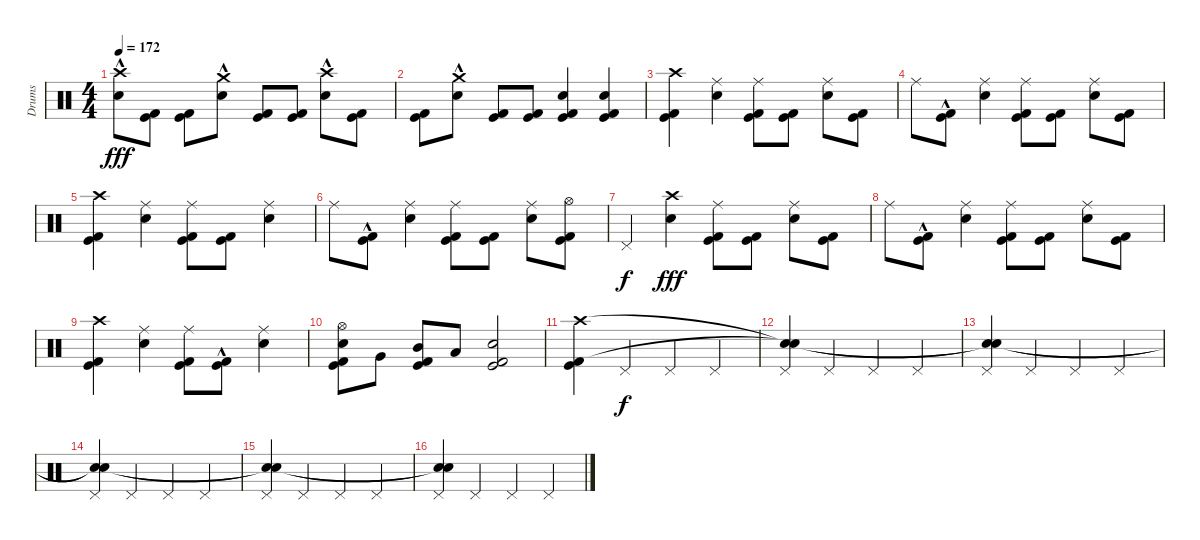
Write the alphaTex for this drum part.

\track ("Drums" "Drums") {instrument percussion}
\staff {score}
\articulation defaults
\ts (4 4)
\tempo 172
\clef neutral
\ks c
("Electric Snare (hit)"{hac} "Crash high (hit)"{hac}).8{dy fff} ("Kick (hit)" "Kick (hit) 2").8 ("Kick (hit)" "Kick (hit) 2").8 ("Electric Snare (hit)"{hac} "Crash medium (hit)"{hac}).8 ("Kick (hit)" "Kick (hit) 2").8 ("Kick (hit)" "Kick (hit) 2").8 ("Electric Snare (hit)"{hac} "Crash high (hit)"{hac}).8 ("Kick (hit)" "Kick (hit) 2").8 |
("Kick (hit)" "Kick (hit) 2").8 ("Electric Snare (hit)"{hac} "Crash medium (hit)"{hac}).8 ("Kick (hit)" "Kick (hit) 2").8 ("Kick (hit)" "Kick (hit) 2").8 ("Kick (hit)" "Kick (hit) 2" "Electric Snare (hit)").4 ("Kick (hit)" "Kick (hit) 2" "Electric Snare (hit)").4 |
("Kick (hit)" "Kick (hit) 2" "Crash high (hit)").4 ("Electric Snare (hit)" "Ride (middle)").4 ("Kick (hit)" "Kick (hit) 2" "Ride (middle)").8 ("Kick (hit)" "Kick (hit) 2").8 ("Electric Snare (hit)" "Ride (middle)").8 ("Kick (hit)" "Kick (hit) 2").8 |
"Ride (middle)".8 ("Kick (hit)"{hac} "Kick (hit) 2"{hac}).8 ("Electric Snare (hit)" "Ride (middle)").4 ("Kick (hit)" "Kick (hit) 2" "Ride (middle)").8 ("Kick (hit)" "Kick (hit) 2").8 ("Electric Snare (hit)" "Ride (middle)").8 ("Kick (hit)" "Kick (hit) 2").8 |
("Kick (hit)" "Kick (hit) 2" "Crash high (hit)").4 ("Electric Snare (hit)" "Ride (middle)").4 ("Kick (hit)" "Kick (hit) 2" "Ride (middle)").8 ("Kick (hit)" "Kick (hit) 2").8 ("Electric Snare (hit)" "Ride (middle)").4 |
"Ride (middle)".8 ("Kick (hit)"{hac} "Kick (hit) 2"{hac}).8 ("Electric Snare (hit)" "Ride (middle)").4 ("Kick (hit)" "Kick (hit) 2" "Ride (middle)").8 ("Kick (hit)" "Kick (hit) 2").8 ("Electric Snare (hit)" "Ride (middle)").8 ("Kick (hit)" "Kick (hit) 2" "Hi-Hat (open)").8 |
"Pedal Hi-Hat (hit)".4{dy f} ("Electric Snare (hit)" "Crash high (hit)").4{dy fff} ("Kick (hit)" "Kick (hit) 2" "Ride (middle)").8 ("Kick (hit)" "Kick (hit) 2").8 ("Electric Snare (hit)" "Ride (middle)").8 ("Kick (hit)" "Kick (hit) 2").8 |
"Ride (middle)".8 ("Kick (hit)"{hac} "Kick (hit) 2"{hac}).8 ("Electric Snare (hit)" "Ride (middle)").4 ("Kick (hit)" "Kick (hit) 2" "Ride (middle)").8 ("Kick (hit)" "Kick (hit) 2").8 ("Electric Snare (hit)" "Ride (middle)").8 ("Kick (hit)" "Kick (hit) 2").8 |
("Kick (hit)" "Kick (hit) 2" "Crash high (hit)").4 ("Electric Snare (hit)" "Ride (middle)").4 ("Kick (hit)" "Kick (hit) 2" "Ride (middle)").8 ("Kick (hit)"{hac} "Kick (hit) 2"{hac}).8 ("Electric Snare (hit)" "Ride (middle)").4 |
("Kick (hit)" "Kick (hit) 2" "Electric Snare (hit)" "Hi-Hat (open)").8 "Very Low Tom (hit)".8 ("Kick (hit)" "Kick (hit) 2" "Mid Tom (hit)").8 "Low Tom (hit)".8 ("Kick (hit)" "Kick (hit) 2" "Electric Snare (hit)").2 |
("Kick (hit)" "Kick (hit) 2" "Crash high (hit)").4 "Pedal Hi-Hat (hit)".4{dy f} "Pedal Hi-Hat (hit)".4 "Pedal Hi-Hat (hit)".4 |
("Pedal Hi-Hat (hit)" "Snare (hit)"{t} "Snare (hit)"{t}).4 "Pedal Hi-Hat (hit)".4 "Pedal Hi-Hat (hit)".4 "Pedal Hi-Hat (hit)".4 |
("Pedal Hi-Hat (hit)" "Snare (hit)"{t} "Snare (hit)"{t}).4 "Pedal Hi-Hat (hit)".4 "Pedal Hi-Hat (hit)".4 "Pedal Hi-Hat (hit)".4 |
("Pedal Hi-Hat (hit)" "Snare (hit)"{t} "Snare (hit)"{t}).4 "Pedal Hi-Hat (hit)".4 "Pedal Hi-Hat (hit)".4 "Pedal Hi-Hat (hit)".4 |
("Pedal Hi-Hat (hit)" "Snare (hit)"{t} "Snare (hit)"{t}).4 "Pedal Hi-Hat (hit)".4 "Pedal Hi-Hat (hit)".4 "Pedal Hi-Hat (hit)".4 |
("Pedal Hi-Hat (hit)" "Snare (hit)"{t} "Snare (hit)"{t}).4 "Pedal Hi-Hat (hit)".4 "Pedal Hi-Hat (hit)".4 "Pedal Hi-Hat (hit)".4
